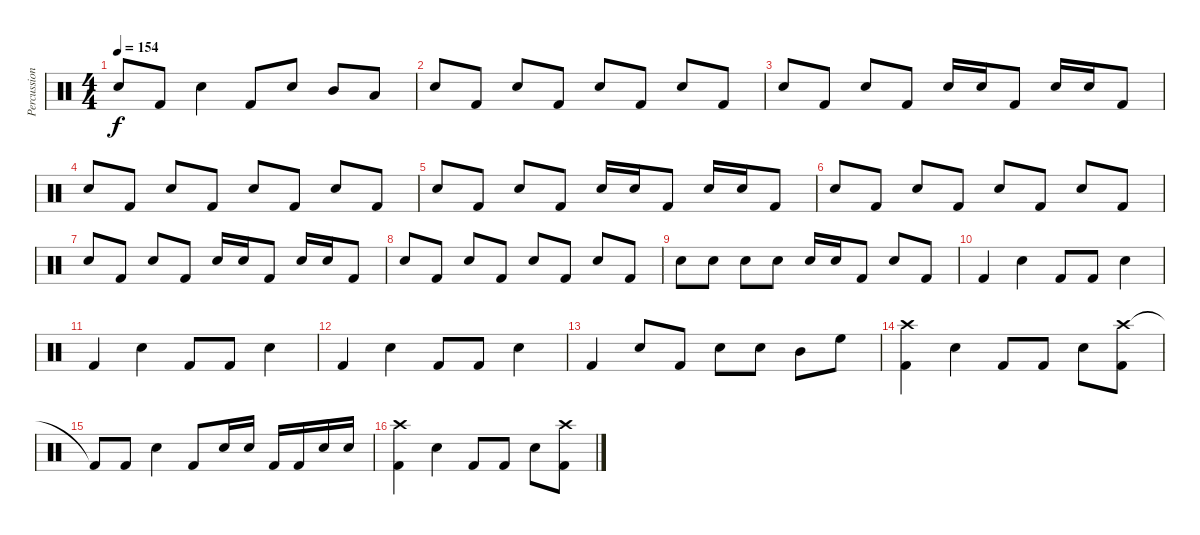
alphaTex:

\track ("Percussion" "Percussion") {instrument percussion}
\staff {score}
\articulation defaults
\ts (4 4)
\tempo 154
\clef neutral
\ks c "Snare (hit)"{t}.8{dy f} "Kick (hit) 2".8 "Electric Snare (hit)".4 "Kick (hit) 2".8 "Electric Snare (hit)".8 "Mid Tom (hit)".8 "Low Tom (hit)".8
|
"Electric Snare (hit)".8 "Kick (hit) 2".8 "Electric Snare (hit)".8 "Kick (hit) 2".8 "Electric Snare (hit)".8 "Kick (hit) 2".8 "Electric Snare (hit)".8 "Kick (hit) 2".8 |
"Electric Snare (hit)".8 "Kick (hit) 2".8 "Electric Snare (hit)".8 "Kick (hit) 2".8 "Electric Snare (hit)".16 "Electric Snare (hit)".16 "Kick (hit) 2".8 "Electric Snare (hit)".16 "Electric Snare (hit)".16 "Kick (hit) 2".8 |
"Electric Snare (hit)".8 "Kick (hit) 2".8 "Electric Snare (hit)".8 "Kick (hit) 2".8 "Electric Snare (hit)".8 "Kick (hit) 2".8 "Electric Snare (hit)".8 "Kick (hit) 2".8 |
"Electric Snare (hit)".8 "Kick (hit) 2".8 "Electric Snare (hit)".8 "Kick (hit) 2".8 "Electric Snare (hit)".16 "Electric Snare (hit)".16 "Kick (hit) 2".8 "Electric Snare (hit)".16 "Electric Snare (hit)".16 "Kick (hit) 2".8 |
"Electric Snare (hit)".8 "Kick (hit) 2".8 "Electric Snare (hit)".8 "Kick (hit) 2".8 "Electric Snare (hit)".8 "Kick (hit) 2".8 "Electric Snare (hit)".8 "Kick (hit) 2".8 |
"Electric Snare (hit)".8 "Kick (hit) 2".8 "Electric Snare (hit)".8 "Kick (hit) 2".8 "Electric Snare (hit)".16 "Electric Snare (hit)".16 "Kick (hit) 2".8 "Electric Snare (hit)".16 "Electric Snare (hit)".16 "Kick (hit) 2".8 |
"Electric Snare (hit)".8 "Kick (hit) 2".8 "Electric Snare (hit)".8 "Kick (hit) 2".8 "Electric Snare (hit)".8 "Kick (hit) 2".8 "Electric Snare (hit)".8 "Kick (hit) 2".8 |
"Electric Snare (hit)".8 "Electric Snare (hit)".8 "Electric Snare (hit)".8 "Electric Snare (hit)".8 "Electric Snare (hit)".16 "Electric Snare (hit)".16 "Kick (hit) 2".8 "Electric Snare (hit)".8 "Kick (hit) 2".8 |
"Kick (hit) 2".4 "Electric Snare (hit)".4 "Kick (hit) 2".8 "Kick (hit) 2".8 "Electric Snare (hit)".4 |
"Kick (hit) 2".4 "Electric Snare (hit)".4 "Kick (hit) 2".8 "Kick (hit) 2".8 "Electric Snare (hit)".4 |
"Kick (hit) 2".4 "Electric Snare (hit)".4 "Kick (hit) 2".8 "Kick (hit) 2".8 "Electric Snare (hit)".4 |
"Kick (hit) 2".4 "Electric Snare (hit)".8 "Kick (hit) 2".8 "Electric Snare (hit)".8 "Electric Snare (hit)".8 "Mid Tom (hit)".8 "High Floor Tom (hit)".8 |
("Crash high (hit)" "Kick (hit) 2").4 "Electric Snare (hit)".4 "Kick (hit) 2".8 "Kick (hit) 2".8 "Electric Snare (hit)".8 ("Crash high (hit)" "Kick (hit) 2").8 |
"Kick (hit) 2"{t}.8 "Kick (hit) 2".8 "Electric Snare (hit)".4 "Kick (hit) 2".8 "Electric Snare (hit)".16 "Electric Snare (hit)".16 "Kick (hit) 2".16 "Kick (hit) 2".16 "Electric Snare (hit)".16 "Electric Snare (hit)".16 |
("Crash high (hit)" "Kick (hit) 2").4 "Electric Snare (hit)".4 "Kick (hit) 2".8 "Kick (hit) 2".8 "Electric Snare (hit)".8 ("Crash high (hit)" "Kick (hit) 2").8
